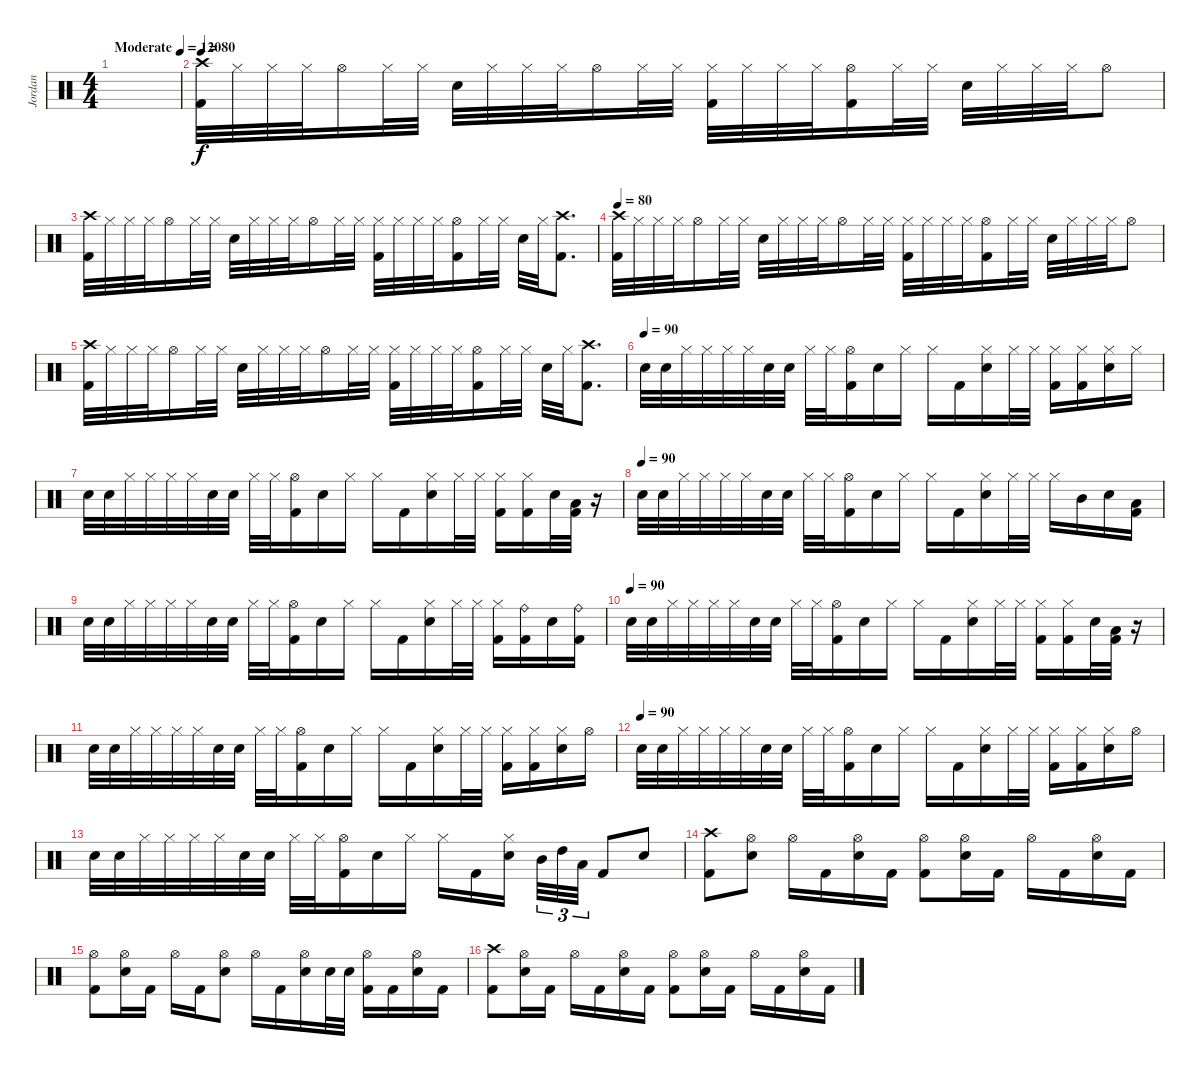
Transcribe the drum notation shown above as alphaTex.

\track ("Jordan" "Jordan") {instrument percussion}
\staff {score}
\articulation defaults
\ts (4 4)
\tempo (120 "Moderate")
\tempo 80
\tempo (120 "Moderate")
\clef neutral
\ks c
|
\tempo 80
("Crash high (hit)" "Kick (hit) 2").32 "Hi-Hat (closed)".32 "Hi-Hat (closed)".32 "Hi-Hat (closed)".32 "Hi-Hat (open)".16 "Hi-Hat (closed)".32 "Hi-Hat (closed)".32 "Snare (hit) 2".32 "Hi-Hat (closed)".32 "Hi-Hat (closed)".32 "Hi-Hat (closed)".32 "Hi-Hat (open)".16 "Hi-Hat (closed)".32 "Hi-Hat (closed)".32 ("Hi-Hat (closed)" "Kick (hit) 2").32 "Hi-Hat (closed)".32 "Hi-Hat (closed)".32 "Hi-Hat (closed)".32 ("Hi-Hat (open)" "Kick (hit) 2").16 "Hi-Hat (closed)".32 "Hi-Hat (closed)".32 "Snare (hit) 2".32 "Hi-Hat (closed)".32 "Hi-Hat (closed)".32 "Hi-Hat (closed)".32 "Hi-Hat (open)".8 |
("Crash high (hit)" "Kick (hit) 2").32 "Hi-Hat (closed)".32 "Hi-Hat (closed)".32 "Hi-Hat (closed)".32 "Hi-Hat (open)".16 "Hi-Hat (closed)".32 "Hi-Hat (closed)".32 "Snare (hit) 2".32 "Hi-Hat (closed)".32 "Hi-Hat (closed)".32 "Hi-Hat (closed)".32 "Hi-Hat (open)".16 "Hi-Hat (closed)".32 "Hi-Hat (closed)".32 ("Hi-Hat (closed)" "Kick (hit) 2").32 "Hi-Hat (closed)".32 "Hi-Hat (closed)".32 "Hi-Hat (closed)".32 ("Hi-Hat (open)" "Kick (hit) 2").16 "Hi-Hat (closed)".32 "Hi-Hat (closed)".32 "Snare (hit) 2".32 "Hi-Hat (closed)".32 ("Crash high (hit)" "Kick (hit) 2").8{d} |
\tempo 80
("Crash high (hit)" "Kick (hit) 2").32 "Hi-Hat (closed)".32 "Hi-Hat (closed)".32 "Hi-Hat (closed)".32 "Hi-Hat (open)".16 "Hi-Hat (closed)".32 "Hi-Hat (closed)".32 "Snare (hit) 2".32 "Hi-Hat (closed)".32 "Hi-Hat (closed)".32 "Hi-Hat (closed)".32 "Hi-Hat (open)".16 "Hi-Hat (closed)".32 "Hi-Hat (closed)".32 ("Hi-Hat (closed)" "Kick (hit) 2").32 "Hi-Hat (closed)".32 "Hi-Hat (closed)".32 "Hi-Hat (closed)".32 ("Hi-Hat (open)" "Kick (hit) 2").16 "Hi-Hat (closed)".32 "Hi-Hat (closed)".32 "Snare (hit) 2".32 "Hi-Hat (closed)".32 "Hi-Hat (closed)".32 "Hi-Hat (closed)".32 "Hi-Hat (open)".8 |
("Crash high (hit)" "Kick (hit) 2").32 "Hi-Hat (closed)".32 "Hi-Hat (closed)".32 "Hi-Hat (closed)".32 "Hi-Hat (open)".16 "Hi-Hat (closed)".32 "Hi-Hat (closed)".32 "Snare (hit) 2".32 "Hi-Hat (closed)".32 "Hi-Hat (closed)".32 "Hi-Hat (closed)".32 "Hi-Hat (open)".16 "Hi-Hat (closed)".32 "Hi-Hat (closed)".32 ("Hi-Hat (closed)" "Kick (hit) 2").32 "Hi-Hat (closed)".32 "Hi-Hat (closed)".32 "Hi-Hat (closed)".32 ("Hi-Hat (open)" "Kick (hit) 2").16 "Hi-Hat (closed)".32 "Hi-Hat (closed)".32 "Snare (hit) 2".32 "Hi-Hat (closed)".32 ("Crash high (hit)" "Kick (hit) 2").8{d} |
\tempo (90)
"Snare (hit) 2".32 "Snare (hit) 2".32 "Hi-Hat (closed)".32 "Hi-Hat (closed)".32 "Hi-Hat (closed)".32 "Hi-Hat (closed)".32 "Snare (hit) 2".32 "Snare (hit) 2".32 "Hi-Hat (closed)".32 "Hi-Hat (closed)".32 ("Hi-Hat (open)" "Kick (hit) 2").16 "Snare (hit) 2".16 "Hi-Hat (closed)".16 "Hi-Hat (closed)".16 "Kick (hit) 2".16 ("Hi-Hat (closed)" "Snare (hit) 2").16 "Hi-Hat (closed)".32 "Hi-Hat (closed)".32 ("Hi-Hat (closed)" "Kick (hit) 2").16 ("Hi-Hat (closed)" "Kick (hit) 2").16 ("Hi-Hat (closed)" "Snare (hit) 2").16 "Hi-Hat (closed)".16 |
"Snare (hit) 2".32 "Snare (hit) 2".32 "Hi-Hat (closed)".32 "Hi-Hat (closed)".32 "Hi-Hat (closed)".32 "Hi-Hat (closed)".32 "Snare (hit) 2".32 "Snare (hit) 2".32 "Hi-Hat (closed)".32 "Hi-Hat (closed)".32 ("Hi-Hat (open)" "Kick (hit) 2").16 "Snare (hit) 2".16 "Hi-Hat (closed)".16 "Hi-Hat (closed)".16 "Kick (hit) 2".16 ("Hi-Hat (closed)" "Snare (hit) 2").16 "Hi-Hat (closed)".32 "Hi-Hat (closed)".32 ("Hi-Hat (closed)" "Kick (hit) 2").16 ("Hi-Hat (closed)" "Kick (hit) 2").16 "Snare (hit) 2".32 ("Low Tom (hit)" "Kick (hit) 2").32 r.16 |
\tempo (90)
"Snare (hit) 2".32 "Snare (hit) 2".32 "Hi-Hat (closed)".32 "Hi-Hat (closed)".32 "Hi-Hat (closed)".32 "Hi-Hat (closed)".32 "Snare (hit) 2".32 "Snare (hit) 2".32 "Hi-Hat (closed)".32 "Hi-Hat (closed)".32 ("Hi-Hat (open)" "Kick (hit) 2").16 "Snare (hit) 2".16 "Hi-Hat (closed)".16 "Hi-Hat (closed)".16 "Kick (hit) 2".16 ("Hi-Hat (closed)" "Snare (hit) 2").16 "Hi-Hat (closed)".32 "Hi-Hat (closed)".32 "Hi-Hat (closed)".16 "Mid Tom (hit)".16 "Snare (hit) 2".16 ("Low Tom (hit)" "Kick (hit) 2").16 |
"Snare (hit) 2".32 "Snare (hit) 2".32 "Hi-Hat (closed)".32 "Hi-Hat (closed)".32 "Hi-Hat (closed)".32 "Hi-Hat (closed)".32 "Snare (hit) 2".32 "Snare (hit) 2".32 "Hi-Hat (closed)".32 "Hi-Hat (closed)".32 ("Hi-Hat (open)" "Kick (hit) 2").16 "Snare (hit) 2".16 "Hi-Hat (closed)".16 "Hi-Hat (closed)".16 "Kick (hit) 2".16 ("Hi-Hat (closed)" "Snare (hit) 2").16 "Hi-Hat (closed)".32 "Hi-Hat (closed)".32 ("Hi-Hat (closed)" "Kick (hit) 2").16 ("Ride (bell)" "Kick (hit) 2").16 "Snare (hit) 2".16 ("Ride (bell)" "Kick (hit) 2").16 |
\tempo (90)
"Snare (hit) 2".32 "Snare (hit) 2".32 "Hi-Hat (closed)".32 "Hi-Hat (closed)".32 "Hi-Hat (closed)".32 "Hi-Hat (closed)".32 "Snare (hit) 2".32 "Snare (hit) 2".32 "Hi-Hat (closed)".32 "Hi-Hat (closed)".32 ("Hi-Hat (open)" "Kick (hit) 2").16 "Snare (hit) 2".16 "Hi-Hat (closed)".16 "Hi-Hat (closed)".16 "Kick (hit) 2".16 ("Hi-Hat (closed)" "Snare (hit) 2").16 "Hi-Hat (closed)".32 "Hi-Hat (closed)".32 ("Hi-Hat (closed)" "Kick (hit) 2").16 ("Hi-Hat (closed)" "Kick (hit) 2").16 "Snare (hit) 2".32 ("Low Tom (hit)" "Kick (hit) 2").32 r.16 |
"Snare (hit) 2".32 "Snare (hit) 2".32 "Hi-Hat (closed)".32 "Hi-Hat (closed)".32 "Hi-Hat (closed)".32 "Hi-Hat (closed)".32 "Snare (hit) 2".32 "Snare (hit) 2".32 "Hi-Hat (closed)".32 "Hi-Hat (closed)".32 ("Hi-Hat (open)" "Kick (hit) 2").16 "Snare (hit) 2".16 "Hi-Hat (closed)".16 "Hi-Hat (closed)".16 "Kick (hit) 2".16 ("Hi-Hat (closed)" "Snare (hit) 2").16 "Hi-Hat (closed)".32 "Hi-Hat (closed)".32 ("Hi-Hat (closed)" "Kick (hit) 2").16 ("Hi-Hat (closed)" "Kick (hit) 2").16 ("Hi-Hat (closed)" "Snare (hit) 2").16 "Hi-Hat (open)".16 |
\tempo (90)
"Snare (hit) 2".32 "Snare (hit) 2".32 "Hi-Hat (closed)".32 "Hi-Hat (closed)".32 "Hi-Hat (closed)".32 "Hi-Hat (closed)".32 "Snare (hit) 2".32 "Snare (hit) 2".32 "Hi-Hat (closed)".32 "Hi-Hat (closed)".32 ("Hi-Hat (open)" "Kick (hit) 2").16 "Snare (hit) 2".16 "Hi-Hat (closed)".16 "Hi-Hat (closed)".16 "Kick (hit) 2".16 ("Hi-Hat (closed)" "Snare (hit) 2").16 "Hi-Hat (closed)".32 "Hi-Hat (closed)".32 ("Hi-Hat (closed)" "Kick (hit) 2").16 ("Hi-Hat (closed)" "Kick (hit) 2").16 ("Hi-Hat (closed)" "Snare (hit) 2").16 "Hi-Hat (open)".16 |
"Snare (hit) 2".32 "Snare (hit) 2".32 "Hi-Hat (closed)".32 "Hi-Hat (closed)".32 "Hi-Hat (closed)".32 "Hi-Hat (closed)".32 "Snare (hit) 2".32 "Snare (hit) 2".32 "Hi-Hat (closed)".32 "Hi-Hat (closed)".32 ("Hi-Hat (open)" "Kick (hit) 2").16 "Snare (hit) 2".16 "Hi-Hat (closed)".16 "Hi-Hat (closed)".16 "Kick (hit) 2".16 ("Hi-Hat (closed)" "Snare (hit) 2").16{beam splitsecondary} "Mid Tom (hit)".32{tu (3 2)} "High Tom (hit)".32{tu (3 2)} "Low Tom (hit)".32{tu (3 2)} "Kick (hit) 2".8 "Snare (hit) 2".8 |
("Crash high (hit)" "Kick (hit) 2").8 ("Hi-Hat (open)" "Snare (hit) 2").8 "Hi-Hat (open)".16 "Kick (hit) 2".16 ("Hi-Hat (open)" "Snare (hit) 2").16 "Kick (hit) 2".16 ("Hi-Hat (open)" "Kick (hit) 2").8 ("Hi-Hat (open)" "Snare (hit) 2").16 "Kick (hit) 2".16 "Hi-Hat (open)".16 "Kick (hit) 2".16 ("Hi-Hat (open)" "Snare (hit) 2").16 "Kick (hit) 2".16 |
("Hi-Hat (open)" "Kick (hit) 2").8 ("Hi-Hat (open)" "Snare (hit) 2").16 "Kick (hit) 2".16 "Hi-Hat (open)".16 "Kick (hit) 2".16 ("Hi-Hat (open)" "Snare (hit) 2").8 "Hi-Hat (open)".16 "Kick (hit) 2".16 ("Hi-Hat (open)" "Snare (hit) 2").16 "Snare (hit) 2".32 "Snare (hit) 2".32 ("Hi-Hat (open)" "Kick (hit) 2").16 "Kick (hit) 2".16 ("Hi-Hat (open)" "Snare (hit) 2").16 "Kick (hit) 2".16 |
("Crash high (hit)" "Kick (hit) 2").8 ("Hi-Hat (open)" "Snare (hit) 2").16 "Kick (hit) 2".16 "Hi-Hat (open)".16 "Kick (hit) 2".16 ("Hi-Hat (open)" "Snare (hit) 2").16 "Kick (hit) 2".16 ("Hi-Hat (open)" "Kick (hit) 2").8 ("Hi-Hat (open)" "Snare (hit) 2").16 "Kick (hit) 2".16 "Hi-Hat (open)".16 "Kick (hit) 2".16 ("Hi-Hat (open)" "Snare (hit) 2").16 "Kick (hit) 2".16
